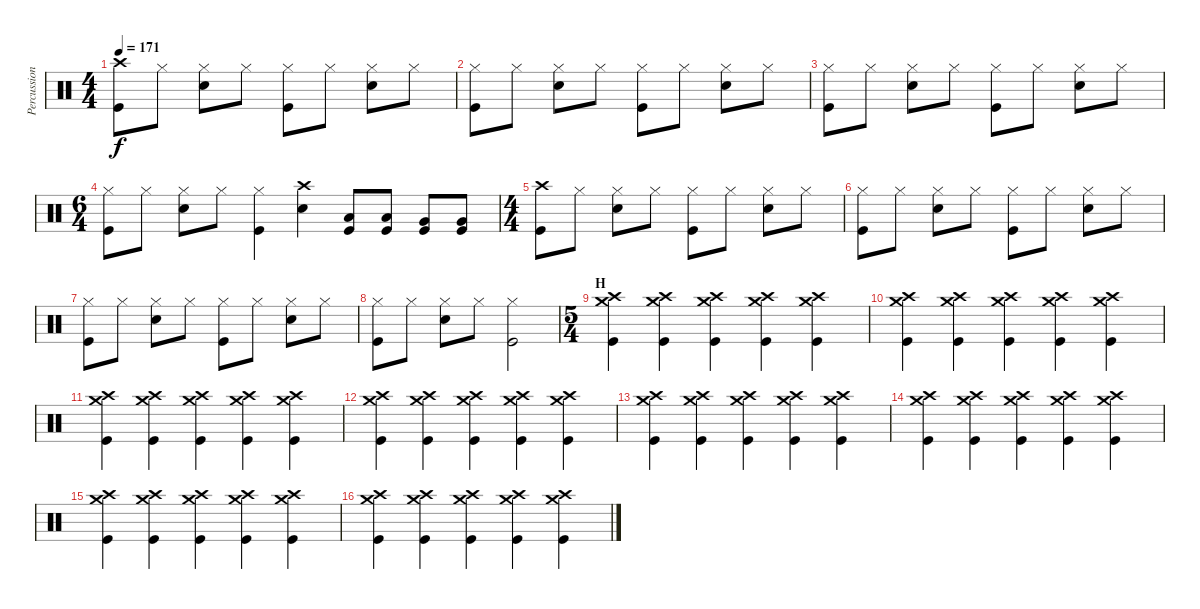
\track ("Percussions" "Percussion") {instrument percussion}
\staff {score}
\articulation defaults
\ts (4 4)
\tempo 171
\clef neutral
\ks c
("Crash high (hit)" "Kick (hit)").8{dy f} "Hi-Hat (closed)".8 ("Hi-Hat (closed)" "Electric Snare (hit)").8 "Hi-Hat (closed)".8 ("Hi-Hat (closed)" "Kick (hit)").8 "Hi-Hat (closed)".8 ("Hi-Hat (closed)" "Electric Snare (hit)").8 "Hi-Hat (closed)".8 |
("Hi-Hat (closed)" "Kick (hit)").8 "Hi-Hat (closed)".8 ("Hi-Hat (closed)" "Electric Snare (hit)").8 "Hi-Hat (closed)".8 ("Hi-Hat (closed)" "Kick (hit)").8 "Hi-Hat (closed)".8 ("Hi-Hat (closed)" "Electric Snare (hit)").8 "Hi-Hat (closed)".8 |
("Hi-Hat (closed)" "Kick (hit)").8 "Hi-Hat (closed)".8 ("Hi-Hat (closed)" "Electric Snare (hit)").8 "Hi-Hat (closed)".8 ("Hi-Hat (closed)" "Kick (hit)").8 "Hi-Hat (closed)".8 ("Hi-Hat (closed)" "Electric Snare (hit)").8 "Hi-Hat (closed)".8 |
\ts (6 4)
("Hi-Hat (closed)" "Kick (hit)").8 "Hi-Hat (closed)".8 ("Hi-Hat (closed)" "Electric Snare (hit)").8 "Hi-Hat (closed)".8 ("Hi-Hat (closed)" "Kick (hit)").4 ("Crash high (hit)" "Electric Snare (hit)").4 ("Low Tom (hit)" "Kick (hit)").8 ("Low Tom (hit)" "Kick (hit)").8 ("Very Low Tom (hit)" "Kick (hit)").8 ("Very Low Tom (hit)" "Kick (hit)").8 |
\ts (4 4)
("Crash high (hit)" "Kick (hit)").8 "Hi-Hat (closed)".8 ("Hi-Hat (closed)" "Electric Snare (hit)").8 "Hi-Hat (closed)".8 ("Hi-Hat (closed)" "Kick (hit)").8 "Hi-Hat (closed)".8 ("Hi-Hat (closed)" "Electric Snare (hit)").8 "Hi-Hat (closed)".8 |
("Hi-Hat (closed)" "Kick (hit)").8 "Hi-Hat (closed)".8 ("Hi-Hat (closed)" "Electric Snare (hit)").8 "Hi-Hat (closed)".8 ("Hi-Hat (closed)" "Kick (hit)").8 "Hi-Hat (closed)".8 ("Hi-Hat (closed)" "Electric Snare (hit)").8 "Hi-Hat (closed)".8 |
("Hi-Hat (closed)" "Kick (hit)").8 "Hi-Hat (closed)".8 ("Hi-Hat (closed)" "Electric Snare (hit)").8 "Hi-Hat (closed)".8 ("Hi-Hat (closed)" "Kick (hit)").8 "Hi-Hat (closed)".8 ("Hi-Hat (closed)" "Electric Snare (hit)").8 "Hi-Hat (closed)".8 |
("Hi-Hat (closed)" "Kick (hit)").8 "Hi-Hat (closed)".8 ("Hi-Hat (closed)" "Electric Snare (hit)").8 "Hi-Hat (closed)".8 ("Hi-Hat (closed)" "Kick (hit)").2 |
\ts (5 4)
\section ("" "H")
("Crash high (hit)" "Crash medium (hit)" "Kick (hit)").4 ("Crash high (hit)" "Crash medium (hit)" "Kick (hit)").4 ("Crash high (hit)" "Crash medium (hit)" "Kick (hit)").4 ("Crash high (hit)" "Crash medium (hit)" "Kick (hit)").4 ("Crash high (hit)" "Crash medium (hit)" "Kick (hit)").4 |
("Crash high (hit)" "Crash medium (hit)" "Kick (hit)").4 ("Crash high (hit)" "Crash medium (hit)" "Kick (hit)").4 ("Crash high (hit)" "Crash medium (hit)" "Kick (hit)").4 ("Crash high (hit)" "Crash medium (hit)" "Kick (hit)").4 ("Crash high (hit)" "Crash medium (hit)" "Kick (hit)").4 |
("Crash high (hit)" "Crash medium (hit)" "Kick (hit)").4 ("Crash high (hit)" "Crash medium (hit)" "Kick (hit)").4 ("Crash high (hit)" "Crash medium (hit)" "Kick (hit)").4 ("Crash high (hit)" "Crash medium (hit)" "Kick (hit)").4 ("Crash high (hit)" "Crash medium (hit)" "Kick (hit)").4 |
("Crash high (hit)" "Crash medium (hit)" "Kick (hit)").4 ("Crash high (hit)" "Crash medium (hit)" "Kick (hit)").4 ("Crash high (hit)" "Crash medium (hit)" "Kick (hit)").4 ("Crash high (hit)" "Crash medium (hit)" "Kick (hit)").4 ("Crash high (hit)" "Crash medium (hit)" "Kick (hit)").4 |
("Crash high (hit)" "Crash medium (hit)" "Kick (hit)").4 ("Crash high (hit)" "Crash medium (hit)" "Kick (hit)").4 ("Crash high (hit)" "Crash medium (hit)" "Kick (hit)").4 ("Crash high (hit)" "Crash medium (hit)" "Kick (hit)").4 ("Crash high (hit)" "Crash medium (hit)" "Kick (hit)").4 |
("Crash high (hit)" "Crash medium (hit)" "Kick (hit)").4 ("Crash high (hit)" "Crash medium (hit)" "Kick (hit)").4 ("Crash high (hit)" "Crash medium (hit)" "Kick (hit)").4 ("Crash high (hit)" "Crash medium (hit)" "Kick (hit)").4 ("Crash high (hit)" "Crash medium (hit)" "Kick (hit)").4 |
("Crash high (hit)" "Crash medium (hit)" "Kick (hit)").4 ("Crash high (hit)" "Crash medium (hit)" "Kick (hit)").4 ("Crash high (hit)" "Crash medium (hit)" "Kick (hit)").4 ("Crash high (hit)" "Crash medium (hit)" "Kick (hit)").4 ("Crash high (hit)" "Crash medium (hit)" "Kick (hit)").4 |
("Crash high (hit)" "Crash medium (hit)" "Kick (hit)").4 ("Crash high (hit)" "Crash medium (hit)" "Kick (hit)").4 ("Crash high (hit)" "Crash medium (hit)" "Kick (hit)").4 ("Crash high (hit)" "Crash medium (hit)" "Kick (hit)").4 ("Crash high (hit)" "Crash medium (hit)" "Kick (hit)").4
